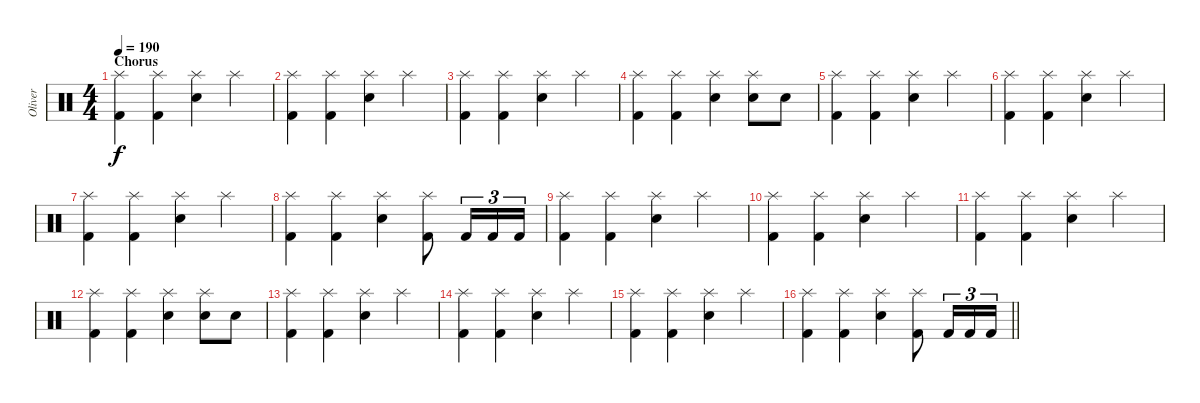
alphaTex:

\track ("Oliver" "Oliver") {instrument percussion}
\staff {score}
\articulation defaults
\ts (4 4)
\section ("" "Chorus")
\tempo 190
\clef neutral
\ks c
("Splash (hit)" "Kick (hit) 2").4{dy f} ("Splash (hit)" "Kick (hit) 2").4 ("Splash (hit)" "Snare (hit) 2").4 "Splash (hit)".4 |
("Splash (hit)" "Kick (hit) 2").4 ("Splash (hit)" "Kick (hit) 2").4 ("Splash (hit)" "Snare (hit) 2").4 "Splash (hit)".4 |
("Splash (hit)" "Kick (hit) 2").4 ("Splash (hit)" "Kick (hit) 2").4 ("Splash (hit)" "Snare (hit) 2").4 "Splash (hit)".4 |
("Splash (hit)" "Kick (hit) 2").4 ("Splash (hit)" "Kick (hit) 2").4 ("Splash (hit)" "Snare (hit) 2").4 ("Splash (hit)" "Snare (hit) 2").8 "Snare (hit) 2".8 |
("Splash (hit)" "Kick (hit) 2").4 ("Splash (hit)" "Kick (hit) 2").4 ("Splash (hit)" "Snare (hit) 2").4 "Splash (hit)".4 |
("Splash (hit)" "Kick (hit) 2").4 ("Splash (hit)" "Kick (hit) 2").4 ("Splash (hit)" "Snare (hit) 2").4 "Splash (hit)".4 |
("Splash (hit)" "Kick (hit) 2").4 ("Splash (hit)" "Kick (hit) 2").4 ("Splash (hit)" "Snare (hit) 2").4 "Splash (hit)".4 |
("Splash (hit)" "Kick (hit) 2").4 ("Splash (hit)" "Kick (hit) 2").4 ("Splash (hit)" "Snare (hit) 2").4 ("Splash (hit)" "Kick (hit) 2").8 "Kick (hit) 2".16{tu (3 2)} "Kick (hit) 2".16{tu (3 2)} "Kick (hit) 2".16{tu (3 2)} |
("Splash (hit)" "Kick (hit) 2").4 ("Splash (hit)" "Kick (hit) 2").4 ("Splash (hit)" "Snare (hit) 2").4 "Splash (hit)".4 |
("Splash (hit)" "Kick (hit) 2").4 ("Splash (hit)" "Kick (hit) 2").4 ("Splash (hit)" "Snare (hit) 2").4 "Splash (hit)".4 |
("Splash (hit)" "Kick (hit) 2").4 ("Splash (hit)" "Kick (hit) 2").4 ("Splash (hit)" "Snare (hit) 2").4 "Splash (hit)".4 |
("Splash (hit)" "Kick (hit) 2").4 ("Splash (hit)" "Kick (hit) 2").4 ("Splash (hit)" "Snare (hit) 2").4 ("Splash (hit)" "Snare (hit) 2").8 "Snare (hit) 2".8 |
("Splash (hit)" "Kick (hit) 2").4 ("Splash (hit)" "Kick (hit) 2").4 ("Splash (hit)" "Snare (hit) 2").4 "Splash (hit)".4 |
("Splash (hit)" "Kick (hit) 2").4 ("Splash (hit)" "Kick (hit) 2").4 ("Splash (hit)" "Snare (hit) 2").4 "Splash (hit)".4 |
("Splash (hit)" "Kick (hit) 2").4 ("Splash (hit)" "Kick (hit) 2").4 ("Splash (hit)" "Snare (hit) 2").4 "Splash (hit)".4 |
\barLineRight lightlight
("Splash (hit)" "Kick (hit) 2").4 ("Splash (hit)" "Kick (hit) 2").4 ("Splash (hit)" "Snare (hit) 2").4 ("Splash (hit)" "Kick (hit) 2").8 "Kick (hit) 2".16{tu (3 2)} "Kick (hit) 2".16{tu (3 2)} "Kick (hit) 2".16{tu (3 2)}
